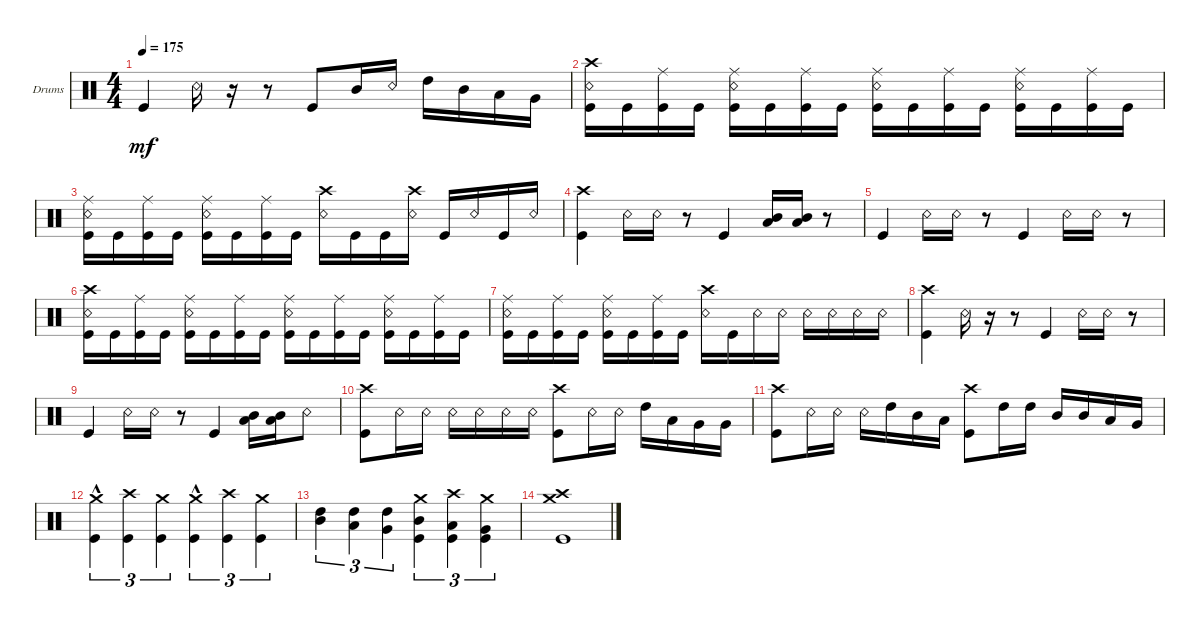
\defaultSystemsLayout 4
\bracketExtendMode groupsimilarinstruments
\firstSystemTrackNameOrientation horizontal
\otherSystemsTrackNameOrientation horizontal
\track ("Drumkit" "Drums") {instrument percussion}
\staff {score}
\articulation defaults
\ts (4 4)
\tempo 175
\clef neutral
\ks c "Kick (hit)".4{dy mf} "Snare (rim shot)".16
r.16 r.8 "Kick (hit)".8 "Mid Tom (hit)".16 "Snare (rim shot)".16 "High Tom (hit)".16 "Mid Tom (hit)".16 "Low Tom (hit)".16 "Very Low Tom (hit)".16 |
("Kick (hit)" "Crash high (hit)" "Snare (rim shot)").16 "Kick (hit)".16 ("Kick (hit)" "Ride (middle)").16 "Kick (hit)".16 ("Kick (hit)" "Snare (rim shot)" "Ride (middle)").16 "Kick (hit)".16 ("Kick (hit)" "Ride (middle)").16 "Kick (hit)".16 ("Kick (hit)" "Ride (middle)" "Snare (rim shot)").16 "Kick (hit)".16 ("Kick (hit)" "Ride (middle)").16 "Kick (hit)".16 ("Kick (hit)" "Ride (middle)" "Snare (rim shot)").16 "Kick (hit)".16 ("Kick (hit)" "Ride (middle)").16 "Kick (hit)".16 |
("Kick (hit)" "Snare (rim shot)" "Ride (middle)").16 "Kick (hit)".16 ("Kick (hit)" "Ride (middle)").16 "Kick (hit)".16 ("Kick (hit)" "Snare (rim shot)" "Ride (middle)").16 "Kick (hit)".16 ("Kick (hit)" "Ride (middle)").16 "Kick (hit)".16 ("Snare (rim shot)" "Crash high (hit)").16 "Kick (hit)".16 "Kick (hit)".16 ("Snare (rim shot)" "Crash high (hit)").16 "Kick (hit)".16 "Snare (rim shot)".16 "Kick (hit)".16 "Snare (rim shot)".16 |
("Kick (hit)" "Crash high (hit)").4 "Snare (rim shot)".16 "Snare (rim shot)".16 r.8 "Kick (hit)".4 ("Mid Tom (hit)" "Low Tom (hit)").16 ("Low Tom (hit)" "Mid Tom (hit)").16 r.8 |
"Kick (hit)".4 "Snare (rim shot)".16 "Snare (rim shot)".16 r.8 "Kick (hit)".4 "Snare (rim shot)".16 "Snare (rim shot)".16 r.8 |
("Kick (hit)" "Crash high (hit)" "Snare (rim shot)").16 "Kick (hit)".16 ("Kick (hit)" "Ride (middle)").16 "Kick (hit)".16 ("Kick (hit)" "Snare (rim shot)" "Ride (middle)").16 "Kick (hit)".16 ("Kick (hit)" "Ride (middle)").16 "Kick (hit)".16 ("Kick (hit)" "Ride (middle)" "Snare (rim shot)").16 "Kick (hit)".16 ("Kick (hit)" "Ride (middle)").16 "Kick (hit)".16 ("Kick (hit)" "Ride (middle)" "Snare (rim shot)").16 "Kick (hit)".16 ("Kick (hit)" "Ride (middle)").16 "Kick (hit)".16 |
("Kick (hit)" "Snare (rim shot)" "Ride (middle)").16 "Kick (hit)".16 ("Kick (hit)" "Ride (middle)").16 "Kick (hit)".16 ("Kick (hit)" "Snare (rim shot)" "Ride (middle)").16 "Kick (hit)".16 ("Kick (hit)" "Ride (middle)").16 "Kick (hit)".16 ("Snare (rim shot)" "Crash high (hit)").16 "Kick (hit)".16 "Snare (rim shot)".16 "Snare (rim shot)".16 "Snare (rim shot)".16 "Snare (rim shot)".16 "Snare (rim shot)".16 "Snare (rim shot)".16 |
("Kick (hit)" "Crash high (hit)").4 "Snare (rim shot)".16 r.16 r.8 "Kick (hit)".4 "Snare (rim shot)".16 "Snare (rim shot)".16 r.8 |
"Kick (hit)".4 "Snare (rim shot)".16 "Snare (rim shot)".16 r.8 "Kick (hit)".4 ("Mid Tom (hit)" "Low Tom (hit)").16 ("Low Tom (hit)" "Mid Tom (hit)").16 "Snare (rim shot)".8 |
("Kick (hit)" "Crash high (hit)").8 "Snare (rim shot)".16 "Snare (rim shot)".16 "Snare (rim shot)".16 "Snare (rim shot)".16 "Snare (rim shot)".16 "Snare (rim shot)".16 ("Kick (hit)" "Crash high (hit)").8 "Snare (rim shot)".16 "Snare (rim shot)".16 "High Tom (hit)".16 "Low Tom (hit)".16 "Very Low Tom (hit)".16 "Very Low Tom (hit)".16 |
("Kick (hit)" "Crash high (hit)").8 "Snare (rim shot)".16 "Snare (rim shot)".16 "Snare (rim shot)".16 "High Tom (hit)".16 "Mid Tom (hit)".16 "Low Tom (hit)".16 ("Kick (hit)" "Crash high (hit)").8 "High Tom (hit)".16 "High Tom (hit)".16 "Mid Tom (hit)".16 "Mid Tom (hit)".16 "Low Tom (hit)".16 "Very Low Tom (hit)".16 |
("Kick (hit)"{hac} "Crash medium (hit)").4{tu (3 2)} ("Kick (hit)" "Crash high (hit)").4{tu (3 2)} ("Kick (hit)" "Crash medium (hit)").4{tu (3 2)} ("Kick (hit)"{hac} "Crash medium (hit)").4{tu (3 2)} ("Kick (hit)" "Crash high (hit)").4{tu (3 2)} ("Kick (hit)" "Crash medium (hit)").4{tu (3 2)} |
("Mid Tom (hit)" "High Tom (hit)").4{tu (3 2)} ("High Tom (hit)" "Low Tom (hit)").4{tu (3 2)} ("High Tom (hit)" "Very Low Tom (hit)").4{tu (3 2)} ("Kick (hit)" "Mid Tom (hit)" "Crash medium (hit)").4{tu (3 2)} ("Kick (hit)" "Low Tom (hit)" "Crash high (hit)").4{tu (3 2)} ("Kick (hit)" "Very Low Tom (hit)" "Crash medium (hit)").4{tu (3 2)} |
("Kick (hit)" "Crash high (hit)" "Crash medium (hit)").1
